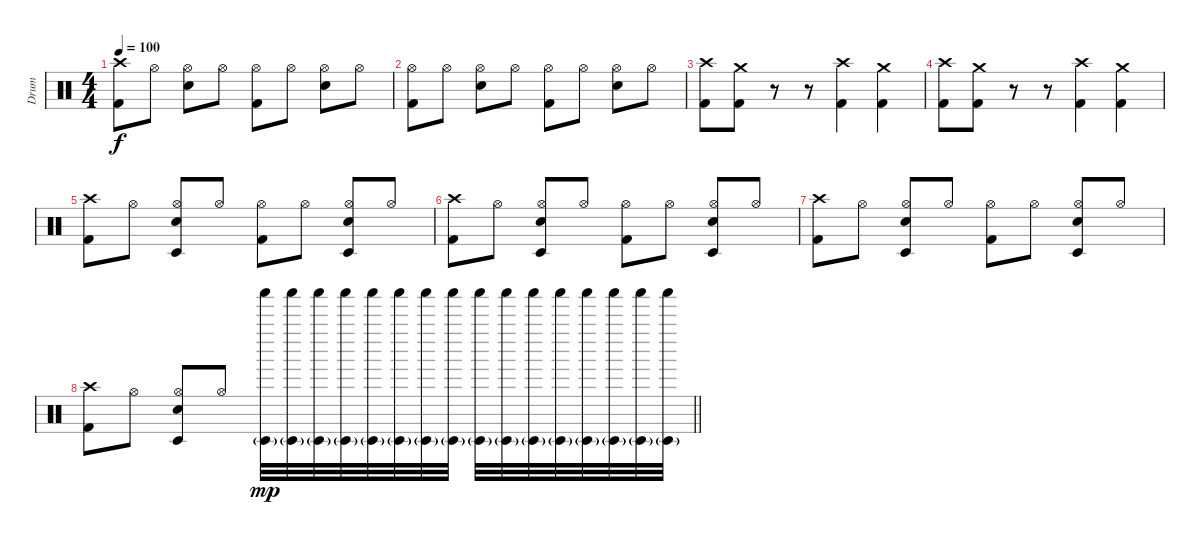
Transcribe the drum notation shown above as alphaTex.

\track ("Drum" "Drum") {instrument percussion}
\staff {score}
\articulation defaults
\ts (4 4)
\tempo 100
\clef neutral
\ks c
("Crash high (hit)" "Kick (hit) 2").8{dy f} "Hi-Hat (open)".8 ("Hi-Hat (open)" "Electric Snare (hit)").8 "Hi-Hat (open)".8 ("Hi-Hat (open)" "Kick (hit) 2").8 "Hi-Hat (open)".8 ("Hi-Hat (open)" "Electric Snare (hit)").8 "Hi-Hat (open)".8 |
("Hi-Hat (open)" "Kick (hit) 2").8 "Hi-Hat (open)".8 ("Hi-Hat (open)" "Electric Snare (hit)").8 "Hi-Hat (open)".8 ("Hi-Hat (open)" "Kick (hit) 2").8 "Hi-Hat (open)".8 ("Hi-Hat (open)" "Electric Snare (hit)").8 "Hi-Hat (open)".8 |
("Crash high (hit)" "Kick (hit) 2").8 ("Crash medium (hit)" "Kick (hit) 2").8 r.8 r.8 ("Crash high (hit)" "Kick (hit) 2").4 ("Crash medium (hit)" "Kick (hit) 2").4 |
("Crash high (hit)" "Kick (hit) 2").8 ("Crash medium (hit)" "Kick (hit) 2").8 r.8 r.8 ("Crash high (hit)" "Kick (hit) 2").4 ("Crash medium (hit)" "Kick (hit) 2").4 |
("Crash high (hit)" "Kick (hit) 2").8 "Hi-Hat (open)".8 ("Hi-Hat (open)" "Electric Snare (hit)" "Timbale low (hit)").8 "Hi-Hat (open)".8 ("Hi-Hat (open)" "Kick (hit) 2").8 "Hi-Hat (open)".8 ("Hi-Hat (open)" "Electric Snare (hit)" "Timbale low (hit)").8 "Hi-Hat (open)".8 |
("Crash high (hit)" "Kick (hit) 2").8 "Hi-Hat (open)".8 ("Hi-Hat (open)" "Electric Snare (hit)" "Timbale low (hit)").8 "Hi-Hat (open)".8 ("Hi-Hat (open)" "Kick (hit) 2").8 "Hi-Hat (open)".8 ("Hi-Hat (open)" "Electric Snare (hit)" "Timbale low (hit)").8 "Hi-Hat (open)".8 |
("Crash high (hit)" "Kick (hit) 2").8 "Hi-Hat (open)".8 ("Hi-Hat (open)" "Electric Snare (hit)" "Timbale low (hit)").8 "Hi-Hat (open)".8 ("Hi-Hat (open)" "Kick (hit) 2").8 "Hi-Hat (open)".8 ("Hi-Hat (open)" "Electric Snare (hit)" "Timbale low (hit)").8 "Hi-Hat (open)".8 |
\barLineRight lightlight
("Crash high (hit)" "Kick (hit) 2").8 "Hi-Hat (open)".8 ("Hi-Hat (open)" "Electric Snare (hit)" "Timbale low (hit)").8 "Hi-Hat (open)".8 ("Timbale low (hit)"{g} "Shaker (hit)").32{dy mp} ("Timbale low (hit)"{g} "Shaker (hit)").32 ("Timbale low (hit)"{g} "Shaker (hit)").32 ("Timbale low (hit)"{g} "Shaker (hit)").32 ("Timbale low (hit)"{g} "Shaker (hit)").32 ("Timbale low (hit)"{g} "Shaker (hit)").32 ("Timbale low (hit)"{g} "Shaker (hit)").32 ("Timbale low (hit)"{g} "Shaker (hit)").32 ("Timbale low (hit)"{g} "Shaker (hit)").32 ("Timbale low (hit)"{g} "Shaker (hit)").32 ("Timbale low (hit)"{g} "Shaker (hit)").32 ("Timbale low (hit)"{g} "Shaker (hit)").32 ("Timbale low (hit)"{g} "Shaker (hit)").32 ("Timbale low (hit)"{g} "Shaker (hit)").32 ("Timbale low (hit)"{g} "Shaker (hit)").32 ("Timbale low (hit)"{g} "Shaker (hit)").32
